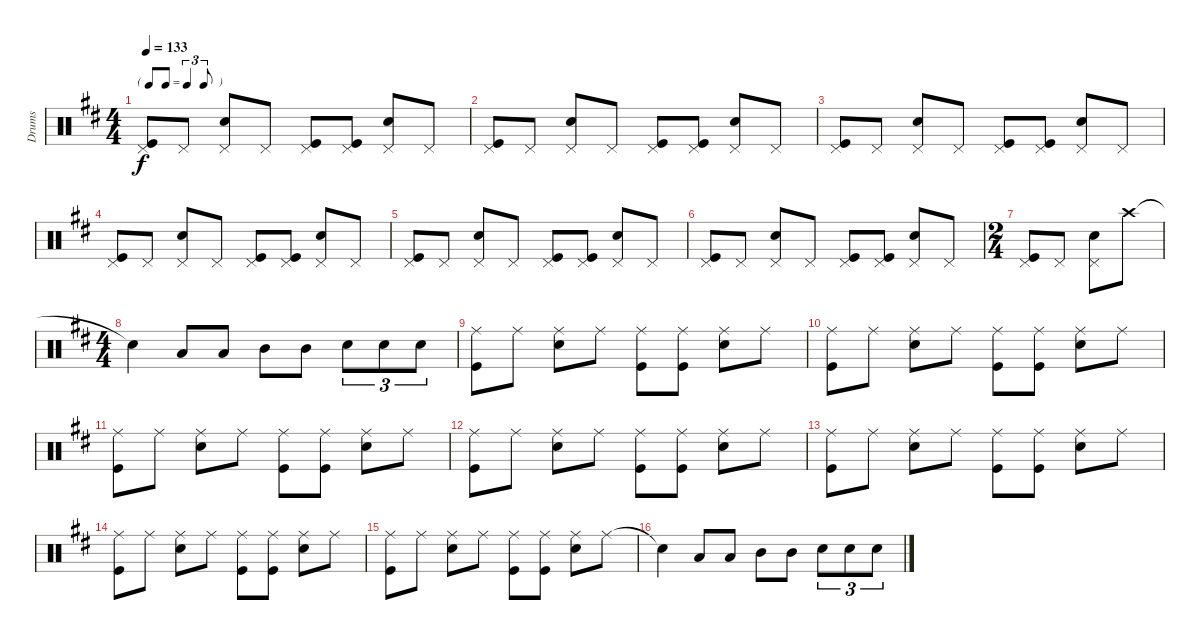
\track ("Drums" "Drums") {instrument percussion}
\staff {score}
\articulation defaults
\ts (4 4)
\tf triplet8th
\tempo 133
\clef neutral
\ks d
("Pedal Hi-Hat (hit)" "Kick (hit)").8{dy f} "Pedal Hi-Hat (hit)".8 ("Pedal Hi-Hat (hit)" "Snare (hit) 2").8 "Pedal Hi-Hat (hit)".8 ("Pedal Hi-Hat (hit)" "Kick (hit)").8 ("Pedal Hi-Hat (hit)" "Kick (hit)").8 ("Pedal Hi-Hat (hit)" "Snare (hit) 2").8 "Pedal Hi-Hat (hit)".8 |
("Pedal Hi-Hat (hit)" "Kick (hit)").8 "Pedal Hi-Hat (hit)".8 ("Pedal Hi-Hat (hit)" "Snare (hit) 2").8 "Pedal Hi-Hat (hit)".8 ("Pedal Hi-Hat (hit)" "Kick (hit)").8 ("Pedal Hi-Hat (hit)" "Kick (hit)").8 ("Pedal Hi-Hat (hit)" "Snare (hit) 2").8 "Pedal Hi-Hat (hit)".8 |
("Pedal Hi-Hat (hit)" "Kick (hit)").8 "Pedal Hi-Hat (hit)".8 ("Pedal Hi-Hat (hit)" "Snare (hit) 2").8 "Pedal Hi-Hat (hit)".8 ("Pedal Hi-Hat (hit)" "Kick (hit)").8 ("Pedal Hi-Hat (hit)" "Kick (hit)").8 ("Pedal Hi-Hat (hit)" "Snare (hit) 2").8 "Pedal Hi-Hat (hit)".8 |
("Pedal Hi-Hat (hit)" "Kick (hit)").8 "Pedal Hi-Hat (hit)".8 ("Pedal Hi-Hat (hit)" "Snare (hit) 2").8 "Pedal Hi-Hat (hit)".8 ("Pedal Hi-Hat (hit)" "Kick (hit)").8 ("Pedal Hi-Hat (hit)" "Kick (hit)").8 ("Pedal Hi-Hat (hit)" "Snare (hit) 2").8 "Pedal Hi-Hat (hit)".8 |
("Pedal Hi-Hat (hit)" "Kick (hit)").8 "Pedal Hi-Hat (hit)".8 ("Pedal Hi-Hat (hit)" "Snare (hit) 2").8 "Pedal Hi-Hat (hit)".8 ("Pedal Hi-Hat (hit)" "Kick (hit)").8 ("Pedal Hi-Hat (hit)" "Kick (hit)").8 ("Pedal Hi-Hat (hit)" "Snare (hit) 2").8 "Pedal Hi-Hat (hit)".8 |
("Pedal Hi-Hat (hit)" "Kick (hit)").8 "Pedal Hi-Hat (hit)".8 ("Pedal Hi-Hat (hit)" "Snare (hit) 2").8 "Pedal Hi-Hat (hit)".8 ("Pedal Hi-Hat (hit)" "Kick (hit)").8 ("Pedal Hi-Hat (hit)" "Kick (hit)").8 ("Pedal Hi-Hat (hit)" "Snare (hit) 2").8 "Pedal Hi-Hat (hit)".8 |
\ts (2 4)
("Pedal Hi-Hat (hit)" "Kick (hit)").8 "Pedal Hi-Hat (hit)".8 ("Pedal Hi-Hat (hit)" "Snare (hit) 2").8 "Crash high (hit)".8 |
\ts (4 4)
"Snare (hit)"{t}.4 "Low Tom (hit)".8 "Low Tom (hit)".8 "Mid Tom (hit)".8 "Mid Tom (hit)".8 "Snare (hit) 2".8{tu (3 2)} "Snare (hit) 2".8{tu (3 2)} "Snare (hit) 2".8{tu (3 2)} |
("Ride (middle)" "Kick (hit)").8 "Ride (middle)".8 ("Ride (middle)" "Snare (hit) 2").8 "Ride (middle)".8 ("Ride (middle)" "Kick (hit)").8 ("Ride (middle)" "Kick (hit)").8 ("Ride (middle)" "Snare (hit) 2").8 "Ride (middle)".8 |
("Ride (middle)" "Kick (hit)").8 "Ride (middle)".8 ("Ride (middle)" "Snare (hit) 2").8 "Ride (middle)".8 ("Ride (middle)" "Kick (hit)").8 ("Ride (middle)" "Kick (hit)").8 ("Ride (middle)" "Snare (hit) 2").8 "Ride (middle)".8 |
("Ride (middle)" "Kick (hit)").8 "Ride (middle)".8 ("Ride (middle)" "Snare (hit) 2").8 "Ride (middle)".8 ("Ride (middle)" "Kick (hit)").8 ("Ride (middle)" "Kick (hit)").8 ("Ride (middle)" "Snare (hit) 2").8 "Ride (middle)".8 |
("Ride (middle)" "Kick (hit)").8 "Ride (middle)".8 ("Ride (middle)" "Snare (hit) 2").8 "Ride (middle)".8 ("Ride (middle)" "Kick (hit)").8 ("Ride (middle)" "Kick (hit)").8 ("Ride (middle)" "Snare (hit) 2").8 "Ride (middle)".8 |
("Ride (middle)" "Kick (hit)").8 "Ride (middle)".8 ("Ride (middle)" "Snare (hit) 2").8 "Ride (middle)".8 ("Ride (middle)" "Kick (hit)").8 ("Ride (middle)" "Kick (hit)").8 ("Ride (middle)" "Snare (hit) 2").8 "Ride (middle)".8 |
("Ride (middle)" "Kick (hit)").8 "Ride (middle)".8 ("Ride (middle)" "Snare (hit) 2").8 "Ride (middle)".8 ("Ride (middle)" "Kick (hit)").8 ("Ride (middle)" "Kick (hit)").8 ("Ride (middle)" "Snare (hit) 2").8 "Ride (middle)".8 |
("Ride (middle)" "Kick (hit)").8 "Ride (middle)".8 ("Ride (middle)" "Snare (hit) 2").8 "Ride (middle)".8 ("Ride (middle)" "Kick (hit)").8 ("Ride (middle)" "Kick (hit)").8 ("Ride (middle)" "Snare (hit) 2").8 "Ride (middle)".8 |
"Snare (hit)"{t}.4 "Low Tom (hit)".8 "Low Tom (hit)".8 "Mid Tom (hit)".8 "Mid Tom (hit)".8 "Snare (hit) 2".8{tu (3 2)} "Snare (hit) 2".8{tu (3 2)} "Snare (hit) 2".8{tu (3 2)}
